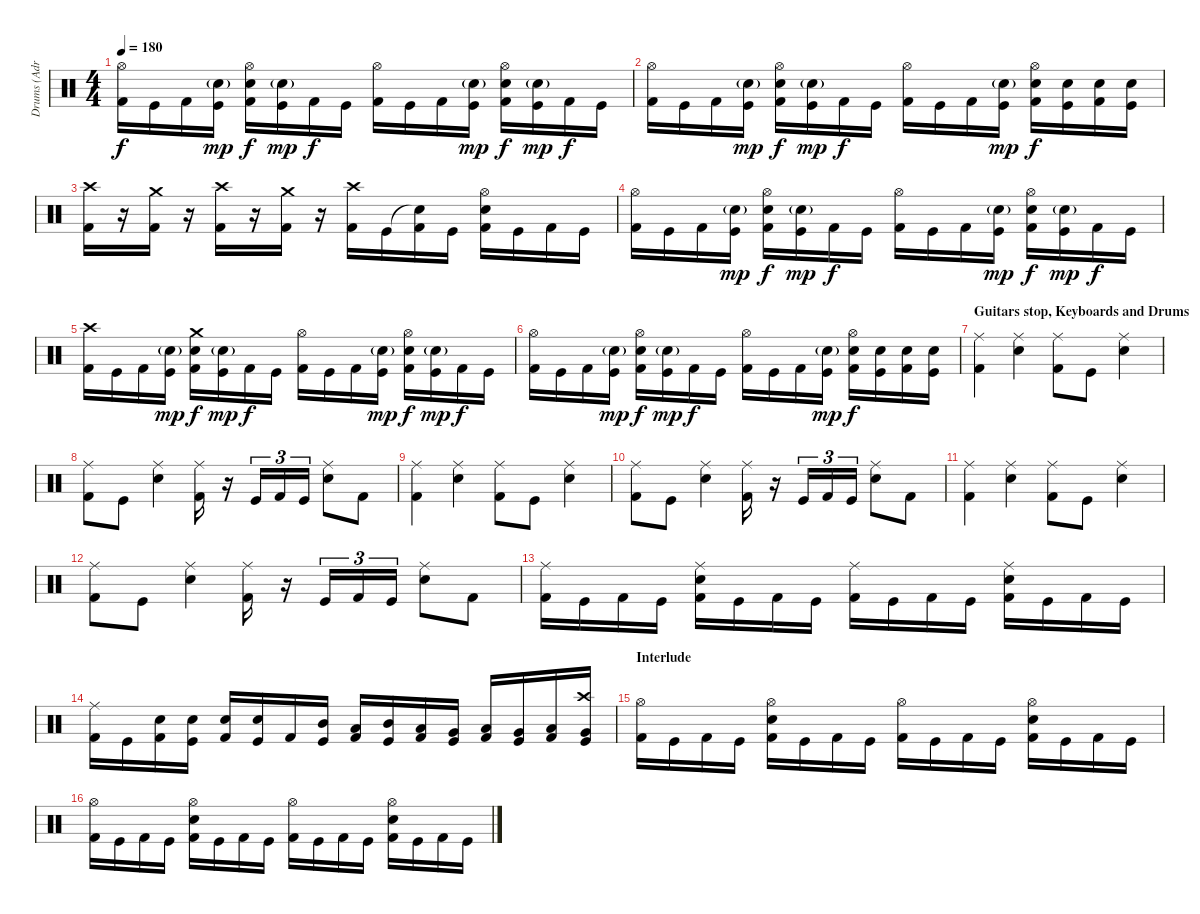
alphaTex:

\track ("Drums (Adrian)" "Drums (Adr") {instrument percussion}
\staff {score}
\articulation defaults
\ts (4 4)
\tempo 180
\clef neutral
\ks c
("Hi-Hat (open)" "Kick (hit) 2").16{dy f} "Kick (hit)".16 "Kick (hit) 2".16 ("Electric Snare (hit)"{g} "Kick (hit)").16{dy mp} ("Hi-Hat (open)" "Electric Snare (hit)" "Kick (hit) 2").16{dy f} ("Electric Snare (hit)"{g} "Kick (hit)").16{dy mp} "Kick (hit) 2".16{dy f} "Kick (hit)".16 ("Hi-Hat (open)" "Kick (hit) 2").16 "Kick (hit)".16 "Kick (hit) 2".16 ("Electric Snare (hit)"{g} "Kick (hit)").16{dy mp} ("Hi-Hat (open)" "Electric Snare (hit)" "Kick (hit) 2").16{dy f} ("Electric Snare (hit)"{g} "Kick (hit)").16{dy mp} "Kick (hit) 2".16{dy f} "Kick (hit)".16 |
("Hi-Hat (open)" "Kick (hit) 2").16 "Kick (hit)".16 "Kick (hit) 2".16 ("Electric Snare (hit)"{g} "Kick (hit)").16{dy mp} ("Hi-Hat (open)" "Electric Snare (hit)" "Kick (hit) 2").16{dy f} ("Electric Snare (hit)"{g} "Kick (hit)").16{dy mp} "Kick (hit) 2".16{dy f} "Kick (hit)".16 ("Hi-Hat (open)" "Kick (hit) 2").16 "Kick (hit)".16 "Kick (hit) 2".16 ("Electric Snare (hit)"{g} "Kick (hit)").16{dy mp} ("Hi-Hat (open)" "Electric Snare (hit)" "Kick (hit) 2").16{dy f} ("Electric Snare (hit)" "Kick (hit)").16 ("Electric Snare (hit)" "Kick (hit) 2").16 ("Electric Snare (hit)" "Kick (hit)").16 |
("Crash high (hit)" "Kick (hit) 2").16 r.16 ("Crash medium (hit)" "Kick (hit) 2").16 r.16 ("Crash high (hit)" "Kick (hit) 2").16 r.16 ("Crash medium (hit)" "Kick (hit) 2").16 r.16 ("Crash high (hit)" "Kick (hit) 2").16 "Kick (hit)".16 ("Snare (hit)"{t} "Kick (hit) 2").16 "Kick (hit)".16 ("Hi-Hat (open)" "Electric Snare (hit)" "Kick (hit) 2").16 "Kick (hit)".16 "Kick (hit) 2".16 "Kick (hit)".16 |
("Hi-Hat (open)" "Kick (hit) 2").16 "Kick (hit)".16 "Kick (hit) 2".16 ("Electric Snare (hit)"{g} "Kick (hit)").16{dy mp} ("Hi-Hat (open)" "Electric Snare (hit)" "Kick (hit) 2").16{dy f} ("Electric Snare (hit)"{g} "Kick (hit)").16{dy mp} "Kick (hit) 2".16{dy f} "Kick (hit)".16 ("Hi-Hat (open)" "Kick (hit) 2").16 "Kick (hit)".16 "Kick (hit) 2".16 ("Electric Snare (hit)"{g} "Kick (hit)").16{dy mp} ("Hi-Hat (open)" "Electric Snare (hit)" "Kick (hit) 2").16{dy f} ("Electric Snare (hit)"{g} "Kick (hit)").16{dy mp} "Kick (hit) 2".16{dy f} "Kick (hit)".16 |
("Crash high (hit)" "Kick (hit) 2").16 "Kick (hit)".16 "Kick (hit) 2".16 ("Electric Snare (hit)"{g} "Kick (hit)").16{dy mp} ("Crash medium (hit)" "Electric Snare (hit)" "Kick (hit) 2").16{dy f} ("Electric Snare (hit)"{g} "Kick (hit)").16{dy mp} "Kick (hit) 2".16{dy f} "Kick (hit)".16 ("Hi-Hat (open)" "Kick (hit) 2").16 "Kick (hit)".16 "Kick (hit) 2".16 ("Electric Snare (hit)"{g} "Kick (hit)").16{dy mp} ("Hi-Hat (open)" "Electric Snare (hit)" "Kick (hit) 2").16{dy f} ("Electric Snare (hit)"{g} "Kick (hit)").16{dy mp} "Kick (hit) 2".16{dy f} "Kick (hit)".16 |
("Hi-Hat (open)" "Kick (hit) 2").16 "Kick (hit)".16 "Kick (hit) 2".16 ("Electric Snare (hit)"{g} "Kick (hit)").16{dy mp} ("Hi-Hat (open)" "Electric Snare (hit)" "Kick (hit) 2").16{dy f} ("Electric Snare (hit)"{g} "Kick (hit)").16{dy mp} "Kick (hit) 2".16{dy f} "Kick (hit)".16 ("Hi-Hat (open)" "Kick (hit) 2").16 "Kick (hit)".16 "Kick (hit) 2".16 ("Electric Snare (hit)"{g} "Kick (hit)").16{dy mp} ("Hi-Hat (open)" "Electric Snare (hit)" "Kick (hit) 2").16{dy f} ("Electric Snare (hit)" "Kick (hit)").16 ("Electric Snare (hit)" "Kick (hit) 2").16 ("Electric Snare (hit)" "Kick (hit)").16 |
\section ("" "Guitars stop, Keyboards and Drums")
("Ride (middle)" "Kick (hit) 2").4 ("Ride (middle)" "Snare (hit) 2").4 ("Ride (middle)" "Kick (hit) 2").8 "Kick (hit)".8 ("Ride (middle)" "Snare (hit) 2").4 |
("Ride (middle)" "Kick (hit) 2").8 "Kick (hit)".8 ("Ride (middle)" "Snare (hit) 2").4 ("Ride (middle)" "Kick (hit) 2").16 r.16 "Kick (hit)".16{tu (3 2)} "Kick (hit) 2".16{tu (3 2)} "Kick (hit)".16{tu (3 2)} ("Ride (middle)" "Snare (hit) 2").8 "Kick (hit) 2".8 |
("Ride (middle)" "Kick (hit) 2").4 ("Ride (middle)" "Snare (hit) 2").4 ("Ride (middle)" "Kick (hit) 2").8 "Kick (hit)".8 ("Ride (middle)" "Snare (hit) 2").4 |
("Ride (middle)" "Kick (hit) 2").8 "Kick (hit)".8 ("Ride (middle)" "Snare (hit) 2").4 ("Ride (middle)" "Kick (hit) 2").16 r.16 "Kick (hit)".16{tu (3 2)} "Kick (hit) 2".16{tu (3 2)} "Kick (hit)".16{tu (3 2)} ("Ride (middle)" "Snare (hit) 2").8 "Kick (hit) 2".8 |
("Ride (middle)" "Kick (hit) 2").4 ("Ride (middle)" "Snare (hit) 2").4 ("Ride (middle)" "Kick (hit) 2").8 "Kick (hit)".8 ("Ride (middle)" "Snare (hit) 2").4 |
("Ride (middle)" "Kick (hit) 2").8 "Kick (hit)".8 ("Ride (middle)" "Snare (hit) 2").4 ("Ride (middle)" "Kick (hit) 2").16 r.16 "Kick (hit)".16{tu (3 2)} "Kick (hit) 2".16{tu (3 2)} "Kick (hit)".16{tu (3 2)} ("Ride (middle)" "Snare (hit) 2").8 "Kick (hit) 2".8 |
("Ride (middle)" "Kick (hit) 2").16 "Kick (hit)".16 "Kick (hit) 2".16 "Kick (hit)".16 ("Ride (middle)" "Snare (hit) 2" "Kick (hit) 2").16 "Kick (hit)".16 "Kick (hit) 2".16 "Kick (hit)".16 ("Ride (middle)" "Kick (hit) 2").16 "Kick (hit)".16 "Kick (hit) 2".16 "Kick (hit)".16 ("Ride (middle)" "Snare (hit) 2" "Kick (hit) 2").16 "Kick (hit)".16 "Kick (hit) 2".16 "Kick (hit)".16 |
("Ride (middle)" "Kick (hit) 2").16 "Kick (hit)".16 ("Snare (hit) 2" "Kick (hit) 2").16 ("Snare (hit) 2" "Kick (hit)").16 ("Snare (hit) 2" "Kick (hit) 2").16 ("Snare (hit) 2" "Kick (hit)").16 "Kick (hit) 2".16 ("Mid Tom (hit)" "Kick (hit)").16 ("Low Tom (hit)" "Kick (hit) 2").16 ("Mid Tom (hit)" "Kick (hit)").16 ("Low Tom (hit)" "Kick (hit) 2").16 ("Very Low Tom (hit)" "Kick (hit)").16 ("Low Tom (hit)" "Kick (hit) 2").16 ("Very Low Tom (hit)" "Kick (hit)").16 ("Low Floor Tom (hit)" "Kick (hit) 2").16 ("Crash high (hit)" "Very Low Tom (hit)" "Kick (hit)").16 |
\section ("" "Interlude")
("Hi-Hat (open)" "Kick (hit) 2").16 "Kick (hit)".16 "Kick (hit) 2".16 "Kick (hit)".16 ("Hi-Hat (open)" "Electric Snare (hit)" "Kick (hit) 2").16 "Kick (hit)".16 "Kick (hit) 2".16 "Kick (hit)".16 ("Hi-Hat (open)" "Kick (hit) 2").16 "Kick (hit)".16 "Kick (hit) 2".16 "Kick (hit)".16 ("Hi-Hat (open)" "Electric Snare (hit)" "Kick (hit) 2").16 "Kick (hit)".16 "Kick (hit) 2".16 "Kick (hit)".16 |
("Hi-Hat (open)" "Kick (hit) 2").16 "Kick (hit)".16 "Kick (hit) 2".16 "Kick (hit)".16 ("Hi-Hat (open)" "Electric Snare (hit)" "Kick (hit) 2").16 "Kick (hit)".16 "Kick (hit) 2".16 "Kick (hit)".16 ("Hi-Hat (open)" "Kick (hit) 2").16 "Kick (hit)".16 "Kick (hit) 2".16 "Kick (hit)".16 ("Hi-Hat (open)" "Electric Snare (hit)" "Kick (hit) 2").16 "Kick (hit)".16 "Kick (hit) 2".16 "Kick (hit)".16
